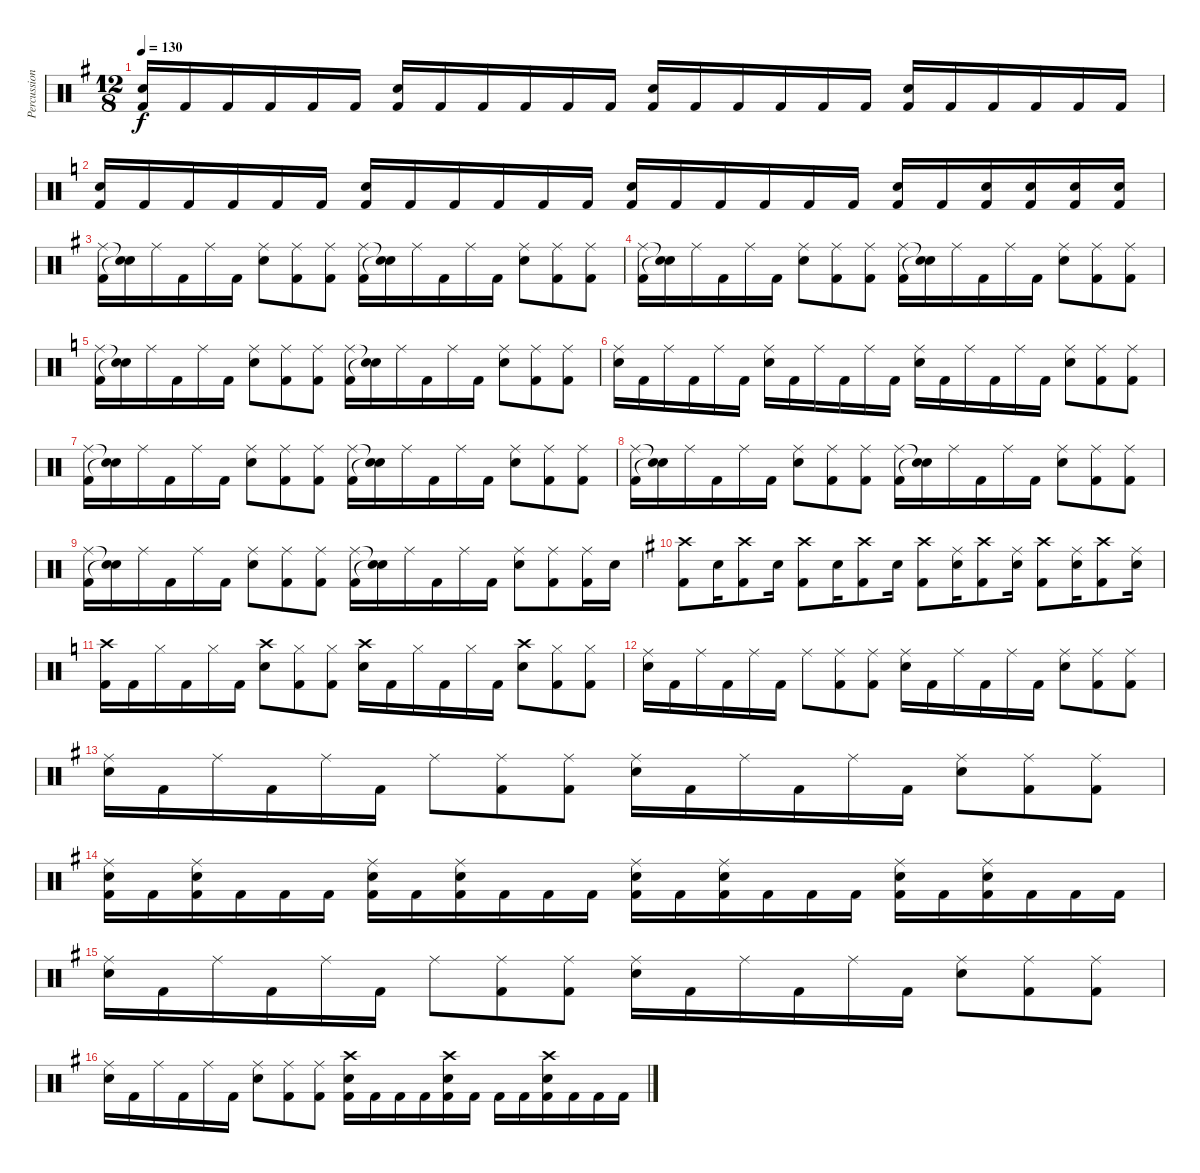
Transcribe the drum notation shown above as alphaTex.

\track ("Percussion" "Percussion") {instrument percussion}
\staff {score}
\articulation defaults
\ts (12 8)
\tempo 130
\clef neutral
\ks g
("Snare (hit) 2" "Kick (hit) 2").16{dy f} "Kick (hit) 2".16 "Kick (hit) 2".16 "Kick (hit) 2".16 "Kick (hit) 2".16 "Kick (hit) 2".16 ("Snare (hit) 2" "Kick (hit) 2").16 "Kick (hit) 2".16 "Kick (hit) 2".16 "Kick (hit) 2".16 "Kick (hit) 2".16 "Kick (hit) 2".16 ("Snare (hit) 2" "Kick (hit) 2").16 "Kick (hit) 2".16 "Kick (hit) 2".16 "Kick (hit) 2".16 "Kick (hit) 2".16 "Kick (hit) 2".16 ("Snare (hit) 2" "Kick (hit) 2").16 "Kick (hit) 2".16 "Kick (hit) 2".16 "Kick (hit) 2".16 "Kick (hit) 2".16 "Kick (hit) 2".16 |
\ks c
("Snare (hit) 2" "Kick (hit) 2").16 "Kick (hit) 2".16 "Kick (hit) 2".16 "Kick (hit) 2".16 "Kick (hit) 2".16 "Kick (hit) 2".16 ("Snare (hit) 2" "Kick (hit) 2").16 "Kick (hit) 2".16 "Kick (hit) 2".16 "Kick (hit) 2".16 "Kick (hit) 2".16 "Kick (hit) 2".16 ("Snare (hit) 2" "Kick (hit) 2").16 "Kick (hit) 2".16 "Kick (hit) 2".16 "Kick (hit) 2".16 "Kick (hit) 2".16 "Kick (hit) 2".16 ("Snare (hit) 2" "Kick (hit) 2").16 "Kick (hit) 2".16 ("Snare (hit) 2" "Kick (hit) 2").16 ("Snare (hit) 2" "Kick (hit) 2").16 ("Snare (hit) 2" "Kick (hit) 2").16 ("Snare (hit) 2" "Kick (hit) 2").16 |
\ks g
("Ride (middle)" "Kick (hit) 2").16 ("Snare (hit)"{t} "Snare (hit)"{t}).16 "Ride (middle)".16 "Kick (hit) 2".16 "Ride (middle)".16 "Kick (hit) 2".16 ("Ride (middle)" "Snare (hit) 2").8 ("Ride (middle)" "Kick (hit) 2").8 ("Ride (middle)" "Kick (hit) 2").8 ("Ride (middle)" "Kick (hit) 2").16 ("Snare (hit)"{t} "Snare (hit)"{t}).16 "Ride (middle)".16 "Kick (hit) 2".16 "Ride (middle)".16 "Kick (hit) 2".16 ("Ride (middle)" "Snare (hit) 2").8 ("Ride (middle)" "Kick (hit) 2").8 ("Ride (middle)" "Kick (hit) 2").8 |
("Ride (middle)" "Kick (hit) 2").16 ("Snare (hit)"{t} "Snare (hit)"{t}).16 "Ride (middle)".16 "Kick (hit) 2".16 "Ride (middle)".16 "Kick (hit) 2".16 ("Ride (middle)" "Snare (hit) 2").8 ("Ride (middle)" "Kick (hit) 2").8 ("Ride (middle)" "Kick (hit) 2").8 ("Ride (middle)" "Kick (hit) 2").16 ("Snare (hit)"{t} "Snare (hit)"{t}).16 "Ride (middle)".16 "Kick (hit) 2".16 "Ride (middle)".16 "Kick (hit) 2".16 ("Ride (middle)" "Snare (hit) 2").8 ("Ride (middle)" "Kick (hit) 2").8 ("Ride (middle)" "Kick (hit) 2").8 |
\ks c
("Ride (middle)" "Kick (hit) 2").16 ("Snare (hit)"{t} "Snare (hit)"{t}).16 "Ride (middle)".16 "Kick (hit) 2".16 "Ride (middle)".16 "Kick (hit) 2".16 ("Ride (middle)" "Snare (hit) 2").8 ("Ride (middle)" "Kick (hit) 2").8 ("Ride (middle)" "Kick (hit) 2").8 ("Ride (middle)" "Kick (hit) 2").16 ("Snare (hit)"{t} "Snare (hit)"{t}).16 "Ride (middle)".16 "Kick (hit) 2".16 "Ride (middle)".16 "Kick (hit) 2".16 ("Ride (middle)" "Snare (hit) 2").8 ("Ride (middle)" "Kick (hit) 2").8 ("Ride (middle)" "Kick (hit) 2").8 |
("Ride (middle)" "Snare (hit) 2").16 "Kick (hit) 2".16 "Ride (middle)".16 "Kick (hit) 2".16 "Ride (middle)".16 "Kick (hit) 2".16 ("Ride (middle)" "Snare (hit) 2").16 "Kick (hit) 2".16 "Ride (middle)".16 "Kick (hit) 2".16 "Ride (middle)".16 "Kick (hit) 2".16 ("Ride (middle)" "Snare (hit) 2").16 "Kick (hit) 2".16 "Ride (middle)".16 "Kick (hit) 2".16 "Ride (middle)".16 "Kick (hit) 2".16 ("Ride (middle)" "Snare (hit) 2").8 ("Ride (middle)" "Kick (hit) 2").8 ("Ride (middle)" "Kick (hit) 2").8 |
("Ride (middle)" "Kick (hit) 2").16 ("Snare (hit)"{t} "Snare (hit)"{t}).16 "Ride (middle)".16 "Kick (hit) 2".16 "Ride (middle)".16 "Kick (hit) 2".16 ("Ride (middle)" "Snare (hit) 2").8 ("Ride (middle)" "Kick (hit) 2").8 ("Ride (middle)" "Kick (hit) 2").8 ("Ride (middle)" "Kick (hit) 2").16 ("Snare (hit)"{t} "Snare (hit)"{t}).16 "Ride (middle)".16 "Kick (hit) 2".16 "Ride (middle)".16 "Kick (hit) 2".16 ("Ride (middle)" "Snare (hit) 2").8 ("Ride (middle)" "Kick (hit) 2").8 ("Ride (middle)" "Kick (hit) 2").8 |
("Ride (middle)" "Kick (hit) 2").16 ("Snare (hit)"{t} "Snare (hit)"{t}).16 "Ride (middle)".16 "Kick (hit) 2".16 "Ride (middle)".16 "Kick (hit) 2".16 ("Ride (middle)" "Snare (hit) 2").8 ("Ride (middle)" "Kick (hit) 2").8 ("Ride (middle)" "Kick (hit) 2").8 ("Ride (middle)" "Kick (hit) 2").16 ("Snare (hit)"{t} "Snare (hit)"{t}).16 "Ride (middle)".16 "Kick (hit) 2".16 "Ride (middle)".16 "Kick (hit) 2".16 ("Ride (middle)" "Snare (hit) 2").8 ("Ride (middle)" "Kick (hit) 2").8 ("Ride (middle)" "Kick (hit) 2").8 |
("Ride (middle)" "Kick (hit) 2").16 ("Snare (hit)"{t} "Snare (hit)"{t}).16 "Ride (middle)".16 "Kick (hit) 2".16 "Ride (middle)".16 "Kick (hit) 2".16 ("Ride (middle)" "Snare (hit) 2").8 ("Ride (middle)" "Kick (hit) 2").8 ("Ride (middle)" "Kick (hit) 2").8 ("Ride (middle)" "Kick (hit) 2").16 ("Snare (hit)"{t} "Snare (hit)"{t}).16 "Ride (middle)".16 "Kick (hit) 2".16 "Ride (middle)".16 "Kick (hit) 2".16 ("Ride (middle)" "Snare (hit) 2").8 ("Ride (middle)" "Kick (hit) 2").8 ("Ride (middle)" "Kick (hit) 2").16 "Snare (hit) 2".16 |
\ks g
("Crash high (hit)" "Kick (hit) 2").8 "Snare (hit) 2".16 ("Crash high (hit)" "Kick (hit) 2").8 "Snare (hit) 2".16 ("Crash high (hit)" "Kick (hit) 2").8 "Snare (hit) 2".16 ("Crash high (hit)" "Kick (hit) 2").8 "Snare (hit) 2".16 ("Crash high (hit)" "Kick (hit) 2").8 ("Ride (middle)" "Snare (hit) 2").16 ("Crash high (hit)" "Kick (hit) 2").8 ("Ride (middle)" "Snare (hit) 2").16 ("Crash high (hit)" "Kick (hit) 2").8 ("Ride (middle)" "Snare (hit) 2").16 ("Crash high (hit)" "Kick (hit) 2").8 ("Ride (middle)" "Snare (hit) 2").16 |
\ks c
("Crash high (hit)" "Kick (hit) 2").16 "Kick (hit) 2".16 "Hi-Hat (closed)".16 "Kick (hit) 2".16 "Hi-Hat (closed)".16 "Kick (hit) 2".16 ("Crash high (hit)" "Snare (hit) 2").8 ("Hi-Hat (closed)" "Kick (hit) 2").8 ("Hi-Hat (closed)" "Kick (hit) 2").8 ("Crash high (hit)" "Snare (hit) 2").16 "Kick (hit) 2".16 "Hi-Hat (closed)".16 "Kick (hit) 2".16 "Hi-Hat (closed)".16 "Kick (hit) 2".16 ("Crash high (hit)" "Snare (hit) 2").8 ("Hi-Hat (closed)" "Kick (hit) 2").8 ("Hi-Hat (closed)" "Kick (hit) 2").8 |
("Ride (middle)" "Snare (hit) 2").16 "Kick (hit) 2".16 "Ride (middle)".16 "Kick (hit) 2".16 "Ride (middle)".16 "Kick (hit) 2".16 "Ride (middle)".8 ("Ride (middle)" "Kick (hit) 2").8 ("Ride (middle)" "Kick (hit) 2").8 ("Ride (middle)" "Snare (hit) 2").16 "Kick (hit) 2".16 "Ride (middle)".16 "Kick (hit) 2".16 "Ride (middle)".16 "Kick (hit) 2".16 ("Ride (middle)" "Snare (hit) 2").8 ("Ride (middle)" "Kick (hit) 2").8 ("Ride (middle)" "Kick (hit) 2").8 |
\ks g
("Ride (middle)" "Snare (hit) 2").16 "Kick (hit) 2".16 "Ride (middle)".16 "Kick (hit) 2".16 "Ride (middle)".16 "Kick (hit) 2".16 "Ride (middle)".8 ("Ride (middle)" "Kick (hit) 2").8 ("Ride (middle)" "Kick (hit) 2").8 ("Ride (middle)" "Snare (hit) 2").16 "Kick (hit) 2".16 "Ride (middle)".16 "Kick (hit) 2".16 "Ride (middle)".16 "Kick (hit) 2".16 ("Ride (middle)" "Snare (hit) 2").8 ("Ride (middle)" "Kick (hit) 2").8 ("Ride (middle)" "Kick (hit) 2").8 |
("Ride (middle)" "Snare (hit) 2" "Kick (hit) 2").16 "Kick (hit) 2".16 ("Ride (middle)" "Snare (hit) 2" "Kick (hit) 2").16 "Kick (hit) 2".16 "Kick (hit) 2".16 "Kick (hit) 2".16 ("Ride (middle)" "Snare (hit) 2" "Kick (hit) 2").16 "Kick (hit) 2".16 ("Ride (middle)" "Snare (hit) 2" "Kick (hit) 2").16 "Kick (hit) 2".16 "Kick (hit) 2".16 "Kick (hit) 2".16 ("Ride (middle)" "Snare (hit) 2" "Kick (hit) 2").16 "Kick (hit) 2".16 ("Ride (middle)" "Snare (hit) 2" "Kick (hit) 2").16 "Kick (hit) 2".16 "Kick (hit) 2".16 "Kick (hit) 2".16 ("Ride (middle)" "Snare (hit) 2" "Kick (hit) 2").16 "Kick (hit) 2".16 ("Ride (middle)" "Snare (hit) 2" "Kick (hit) 2").16 "Kick (hit) 2".16 "Kick (hit) 2".16 "Kick (hit) 2".16 |
("Ride (middle)" "Snare (hit) 2").16 "Kick (hit) 2".16 "Ride (middle)".16 "Kick (hit) 2".16 "Ride (middle)".16 "Kick (hit) 2".16 "Ride (middle)".8 ("Ride (middle)" "Kick (hit) 2").8 ("Ride (middle)" "Kick (hit) 2").8 ("Ride (middle)" "Snare (hit) 2").16 "Kick (hit) 2".16 "Ride (middle)".16 "Kick (hit) 2".16 "Ride (middle)".16 "Kick (hit) 2".16 ("Ride (middle)" "Snare (hit) 2").8 ("Ride (middle)" "Kick (hit) 2").8 ("Ride (middle)" "Kick (hit) 2").8 |
("Ride (middle)" "Snare (hit) 2").16 "Kick (hit) 2".16 "Ride (middle)".16 "Kick (hit) 2".16 "Ride (middle)".16 "Kick (hit) 2".16 ("Ride (middle)" "Snare (hit) 2").8 ("Ride (middle)" "Kick (hit) 2").8 ("Ride (middle)" "Kick (hit) 2").8 ("Crash high (hit)" "Snare (hit) 2" "Kick (hit) 2").16 "Kick (hit) 2".16 "Kick (hit) 2".16 "Kick (hit) 2".16 ("Crash high (hit)" "Snare (hit) 2" "Kick (hit) 2").16 "Kick (hit) 2".16 "Kick (hit) 2".16 "Kick (hit) 2".16 ("Crash high (hit)" "Snare (hit) 2" "Kick (hit) 2").16 "Kick (hit) 2".16 "Kick (hit) 2".16 "Kick (hit) 2".16
